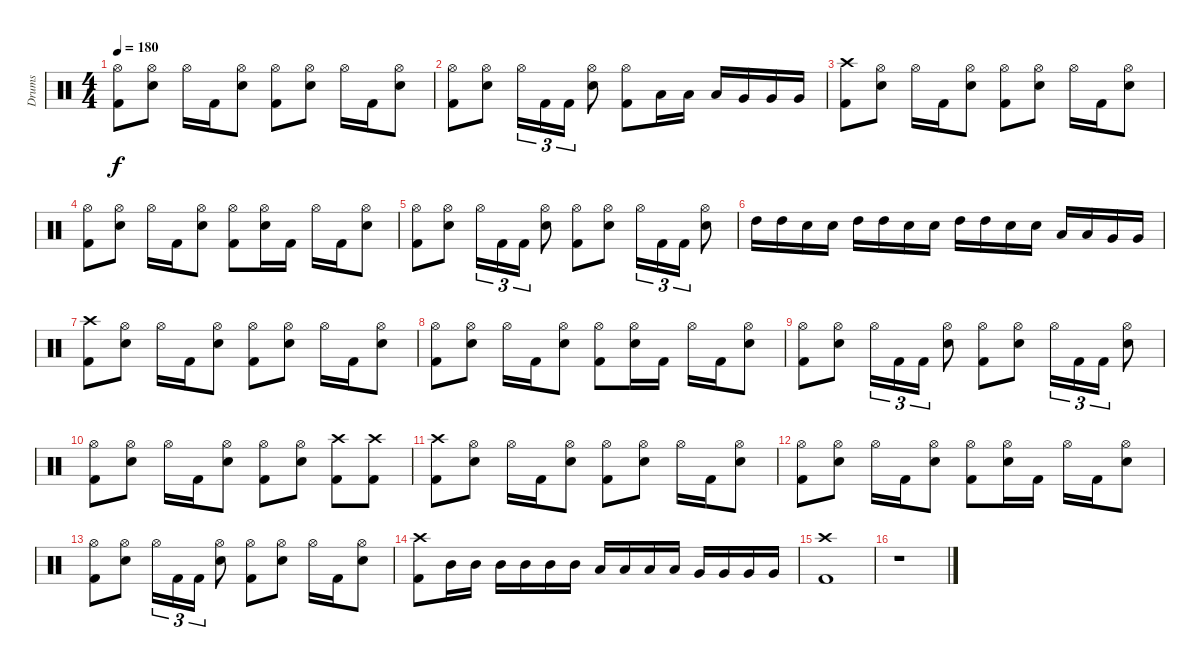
\track ("Drums" "Drums") {instrument percussion}
\staff {score}
\articulation defaults
\ts (4 4)
\tempo 180
\clef neutral
\ks c
("Hi-Hat (open)" "Kick (hit) 2").8{dy f} ("Hi-Hat (open)" "Electric Snare (hit)").8 "Hi-Hat (open)".16 "Kick (hit) 2".16 ("Hi-Hat (open)" "Electric Snare (hit)").8 ("Hi-Hat (open)" "Kick (hit) 2").8 ("Hi-Hat (open)" "Electric Snare (hit)").8 "Hi-Hat (open)".16 "Kick (hit) 2".16 ("Hi-Hat (open)" "Electric Snare (hit)").8 |
("Hi-Hat (open)" "Kick (hit) 2").8 ("Hi-Hat (open)" "Electric Snare (hit)").8 "Hi-Hat (open)".16{tu (3 2)} "Kick (hit) 2".16{tu (3 2)} "Kick (hit) 2".16{tu (3 2)} ("Hi-Hat (open)" "Electric Snare (hit)").8 ("Hi-Hat (open)" "Kick (hit) 2").8 "Low Tom (hit)".16 "Low Tom (hit)".16 "Low Tom (hit)".16 "Very Low Tom (hit)".16 "Very Low Tom (hit)".16 "Very Low Tom (hit)".16 |
("Crash high (hit)" "Kick (hit) 2").8 ("Hi-Hat (open)" "Electric Snare (hit)").8 "Hi-Hat (open)".16 "Kick (hit) 2".16 ("Hi-Hat (open)" "Electric Snare (hit)").8 ("Hi-Hat (open)" "Kick (hit) 2").8 ("Hi-Hat (open)" "Electric Snare (hit)").8 "Hi-Hat (open)".16 "Kick (hit) 2".16 ("Hi-Hat (open)" "Electric Snare (hit)").8 |
("Hi-Hat (open)" "Kick (hit) 2").8 ("Hi-Hat (open)" "Electric Snare (hit)").8 "Hi-Hat (open)".16 "Kick (hit) 2".16 ("Hi-Hat (open)" "Electric Snare (hit)").8 ("Hi-Hat (open)" "Kick (hit) 2").8 ("Hi-Hat (open)" "Electric Snare (hit)").16 "Kick (hit) 2".16 "Hi-Hat (open)".16 "Kick (hit) 2".16 ("Hi-Hat (open)" "Electric Snare (hit)").8 |
("Hi-Hat (open)" "Kick (hit) 2").8 ("Hi-Hat (open)" "Electric Snare (hit)").8 "Hi-Hat (open)".16{tu (3 2)} "Kick (hit) 2".16{tu (3 2)} "Kick (hit) 2".16{tu (3 2)} ("Hi-Hat (open)" "Electric Snare (hit)").8 ("Hi-Hat (open)" "Kick (hit) 2").8 ("Hi-Hat (open)" "Electric Snare (hit)").8 "Hi-Hat (open)".16{tu (3 2)} "Kick (hit) 2".16{tu (3 2)} "Kick (hit) 2".16{tu (3 2)} ("Hi-Hat (open)" "Electric Snare (hit)").8 |
"High Tom (hit)".16 "High Tom (hit)".16 "Electric Snare (hit)".16 "Electric Snare (hit)".16 "High Tom (hit)".16 "High Tom (hit)".16 "Electric Snare (hit)".16 "Electric Snare (hit)".16 "High Tom (hit)".16 "High Tom (hit)".16 "Electric Snare (hit)".16 "Electric Snare (hit)".16 "Low Tom (hit)".16 "Low Tom (hit)".16 "Very Low Tom (hit)".16 "Very Low Tom (hit)".16 |
("Crash high (hit)" "Kick (hit) 2").8 ("Hi-Hat (open)" "Electric Snare (hit)").8 "Hi-Hat (open)".16 "Kick (hit) 2".16 ("Hi-Hat (open)" "Electric Snare (hit)").8 ("Hi-Hat (open)" "Kick (hit) 2").8 ("Hi-Hat (open)" "Electric Snare (hit)").8 "Hi-Hat (open)".16 "Kick (hit) 2".16 ("Hi-Hat (open)" "Electric Snare (hit)").8 |
("Hi-Hat (open)" "Kick (hit) 2").8 ("Hi-Hat (open)" "Electric Snare (hit)").8 "Hi-Hat (open)".16 "Kick (hit) 2".16 ("Hi-Hat (open)" "Electric Snare (hit)").8 ("Hi-Hat (open)" "Kick (hit) 2").8 ("Hi-Hat (open)" "Electric Snare (hit)").16 "Kick (hit) 2".16 "Hi-Hat (open)".16 "Kick (hit) 2".16 ("Hi-Hat (open)" "Electric Snare (hit)").8 |
("Hi-Hat (open)" "Kick (hit) 2").8 ("Hi-Hat (open)" "Electric Snare (hit)").8 "Hi-Hat (open)".16{tu (3 2)} "Kick (hit) 2".16{tu (3 2)} "Kick (hit) 2".16{tu (3 2)} ("Hi-Hat (open)" "Electric Snare (hit)").8 ("Hi-Hat (open)" "Kick (hit) 2").8 ("Hi-Hat (open)" "Electric Snare (hit)").8 "Hi-Hat (open)".16{tu (3 2)} "Kick (hit) 2".16{tu (3 2)} "Kick (hit) 2".16{tu (3 2)} ("Hi-Hat (open)" "Electric Snare (hit)").8 |
("Hi-Hat (open)" "Kick (hit) 2").8 ("Hi-Hat (open)" "Electric Snare (hit)").8 "Hi-Hat (open)".16 "Kick (hit) 2".16 ("Hi-Hat (open)" "Electric Snare (hit)").8 ("Hi-Hat (open)" "Kick (hit) 2").8 ("Hi-Hat (open)" "Electric Snare (hit)").8 ("Crash high (hit)" "Kick (hit) 2").8 ("Crash high (hit)" "Kick (hit) 2").8 |
("Crash high (hit)" "Kick (hit) 2").8 ("Hi-Hat (open)" "Electric Snare (hit)").8 "Hi-Hat (open)".16 "Kick (hit) 2".16 ("Hi-Hat (open)" "Electric Snare (hit)").8 ("Hi-Hat (open)" "Kick (hit) 2").8 ("Hi-Hat (open)" "Electric Snare (hit)").8 "Hi-Hat (open)".16 "Kick (hit) 2".16 ("Hi-Hat (open)" "Electric Snare (hit)").8 |
("Hi-Hat (open)" "Kick (hit) 2").8 ("Hi-Hat (open)" "Electric Snare (hit)").8 "Hi-Hat (open)".16 "Kick (hit) 2".16 ("Hi-Hat (open)" "Electric Snare (hit)").8 ("Hi-Hat (open)" "Kick (hit) 2").8 ("Hi-Hat (open)" "Electric Snare (hit)").16 "Kick (hit) 2".16 "Hi-Hat (open)".16 "Kick (hit) 2".16 ("Hi-Hat (open)" "Electric Snare (hit)").8 |
("Hi-Hat (open)" "Kick (hit) 2").8 ("Hi-Hat (open)" "Electric Snare (hit)").8 "Hi-Hat (open)".16{tu (3 2)} "Kick (hit) 2".16{tu (3 2)} "Kick (hit) 2".16{tu (3 2)} ("Hi-Hat (open)" "Electric Snare (hit)").8 ("Hi-Hat (open)" "Kick (hit) 2").8 ("Hi-Hat (open)" "Electric Snare (hit)").8 "Hi-Hat (open)".16 "Kick (hit) 2".16 ("Hi-Hat (open)" "Electric Snare (hit)").8 |
("Crash high (hit)" "Kick (hit) 2").8 "Mid Tom (hit)".16 "Mid Tom (hit)".16 "Mid Tom (hit)".16 "Mid Tom (hit)".16 "Mid Tom (hit)".16 "Mid Tom (hit)".16 "Low Tom (hit)".16 "Low Tom (hit)".16 "Low Tom (hit)".16 "Low Tom (hit)".16 "Very Low Tom (hit)".16 "Very Low Tom (hit)".16 "Very Low Tom (hit)".16 "Very Low Tom (hit)".16 |
("Crash high (hit)" "Kick (hit) 2").1 |
r.1
